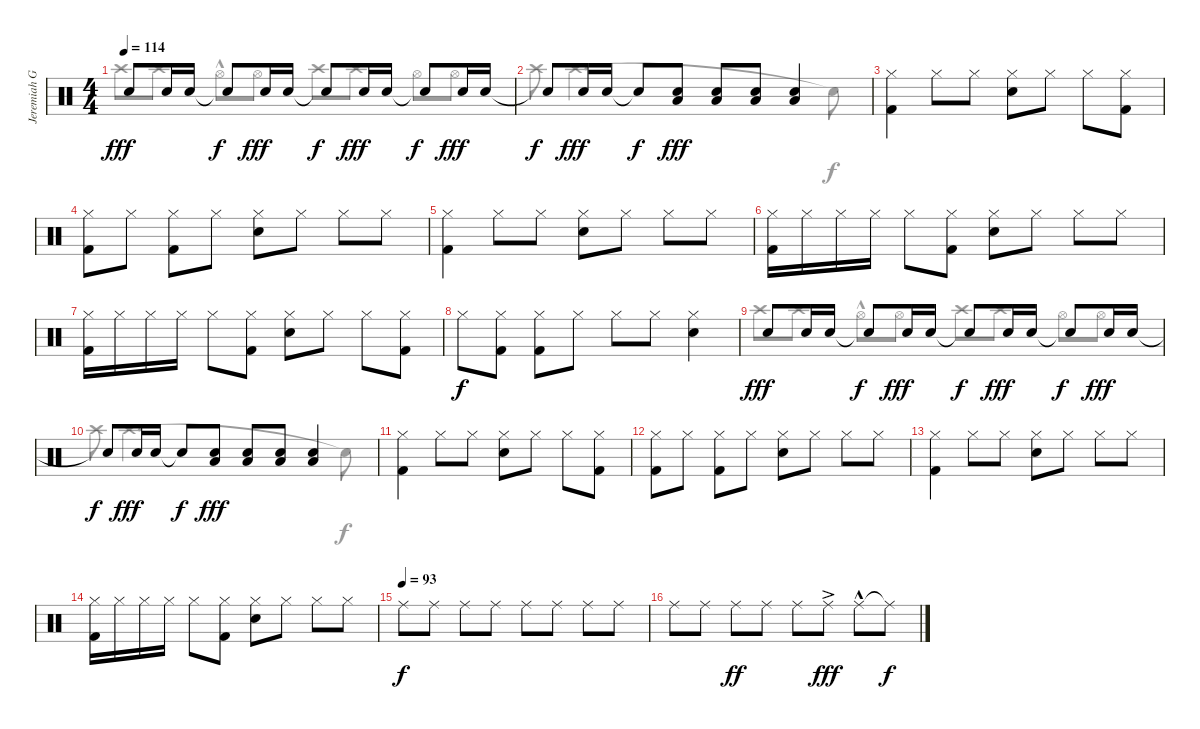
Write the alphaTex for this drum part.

\track ("Jeremiah Green" "Jeremiah G") {instrument percussion}
\staff {score}
\articulation defaults
\voice
\ts (4 4)
\tempo 114
\clef neutral
\ks c "Electric Snare (hit)".8{dy fff} "Snare (hit) 2".16 "Snare (hit) 2".16 "Electric Snare (hit)"{t}.8{dy f} "Snare (hit) 2".16{dy fff} "Snare (hit) 2".16 "Electric Snare (hit)"{t}.8{dy f} "Snare (hit) 2".16{dy fff} "Snare (hit) 2".16 "Electric Snare (hit)"{t}.8{dy f} "Snare (hit) 2".16{dy fff} "Snare (hit) 2".16
|
"Snare (hit)"{t}.8{dy f} "Snare (hit) 2".16{dy fff} "Snare (hit) 2".16 "Snare (hit)"{t}.8{dy f} ("Low Floor Tom (hit)" "Snare (hit) 2").8{dy fff} ("Low Floor Tom (hit)" "Snare (hit) 2").8 ("Low Floor Tom (hit)" "Snare (hit) 2").8 ("Low Floor Tom (hit)" "Snare (hit) 2").4 |
("Hi-Hat (closed)" "Kick (hit) 2").4 "Hi-Hat (closed)".8 "Hi-Hat (closed)".8 ("Hi-Hat (closed)" "Snare (hit) 2").8 "Hi-Hat (closed)".8 "Hi-Hat (closed)".8 ("Hi-Hat (closed)" "Kick (hit) 2").8 |
("Hi-Hat (closed)" "Kick (hit) 2").8 "Hi-Hat (closed)".8 ("Hi-Hat (closed)" "Kick (hit) 2").8 "Hi-Hat (closed)".8 ("Hi-Hat (closed)" "Snare (hit) 2").8 "Hi-Hat (closed)".8 "Hi-Hat (closed)".8 "Hi-Hat (closed)".8 |
("Hi-Hat (closed)" "Kick (hit) 2").4 "Hi-Hat (closed)".8 "Hi-Hat (closed)".8 ("Hi-Hat (closed)" "Snare (hit) 2").8 "Hi-Hat (closed)".8 "Hi-Hat (closed)".8 "Hi-Hat (closed)".8 |
("Hi-Hat (closed)" "Kick (hit) 2").16 "Hi-Hat (closed)".16 "Hi-Hat (closed)".16 "Hi-Hat (closed)".16 "Hi-Hat (closed)".8 ("Hi-Hat (closed)" "Kick (hit) 2").8 ("Hi-Hat (closed)" "Snare (hit) 2").8 "Hi-Hat (closed)".8 "Hi-Hat (closed)".8 "Hi-Hat (closed)".8 |
("Hi-Hat (closed)" "Kick (hit) 2").16 "Hi-Hat (closed)".16 "Hi-Hat (closed)".16 "Hi-Hat (closed)".16 "Hi-Hat (closed)".8 ("Hi-Hat (closed)" "Kick (hit) 2").8 ("Hi-Hat (closed)" "Snare (hit) 2").8 "Hi-Hat (closed)".8 "Hi-Hat (closed)".8 ("Hi-Hat (closed)" "Kick (hit) 2").8 |
"Hi-Hat (closed)".8{dy f} ("Hi-Hat (closed)" "Kick (hit) 2").8 ("Hi-Hat (closed)" "Kick (hit) 2").8 "Hi-Hat (closed)".8 "Hi-Hat (closed)".8 "Hi-Hat (closed)".8 ("Hi-Hat (closed)" "Snare (hit) 2").4 |
"Electric Snare (hit)".8{dy fff} "Snare (hit) 2".16 "Snare (hit) 2".16 "Electric Snare (hit)"{t}.8{dy f} "Snare (hit) 2".16{dy fff} "Snare (hit) 2".16 "Electric Snare (hit)"{t}.8{dy f} "Snare (hit) 2".16{dy fff} "Snare (hit) 2".16 "Electric Snare (hit)"{t}.8{dy f} "Snare (hit) 2".16{dy fff} "Snare (hit) 2".16 |
"Snare (hit)"{t}.8{dy f} "Snare (hit) 2".16{dy fff} "Snare (hit) 2".16 "Snare (hit)"{t}.8{dy f} ("Low Floor Tom (hit)" "Snare (hit) 2").8{dy fff} ("Low Floor Tom (hit)" "Snare (hit) 2").8 ("Low Floor Tom (hit)" "Snare (hit) 2").8 ("Low Floor Tom (hit)" "Snare (hit) 2").4 |
("Hi-Hat (closed)" "Kick (hit) 2").4 "Hi-Hat (closed)".8 "Hi-Hat (closed)".8 ("Hi-Hat (closed)" "Snare (hit) 2").8 "Hi-Hat (closed)".8 "Hi-Hat (closed)".8 ("Hi-Hat (closed)" "Kick (hit) 2").8 |
("Hi-Hat (closed)" "Kick (hit) 2").8 "Hi-Hat (closed)".8 ("Hi-Hat (closed)" "Kick (hit) 2").8 "Hi-Hat (closed)".8 ("Hi-Hat (closed)" "Snare (hit) 2").8 "Hi-Hat (closed)".8 "Hi-Hat (closed)".8 "Hi-Hat (closed)".8 |
("Hi-Hat (closed)" "Kick (hit) 2").4 "Hi-Hat (closed)".8 "Hi-Hat (closed)".8 ("Hi-Hat (closed)" "Snare (hit) 2").8 "Hi-Hat (closed)".8 "Hi-Hat (closed)".8 "Hi-Hat (closed)".8 |
("Hi-Hat (closed)" "Kick (hit) 2").16 "Hi-Hat (closed)".16 "Hi-Hat (closed)".16 "Hi-Hat (closed)".16 "Hi-Hat (closed)".8 ("Hi-Hat (closed)" "Kick (hit) 2").8 ("Hi-Hat (closed)" "Snare (hit) 2").8 "Hi-Hat (closed)".8 "Hi-Hat (closed)".8 "Hi-Hat (closed)".8 |
\tempo (93)
"Ride (middle)".8{dy f} "Ride (middle)".8 "Ride (middle)".8 "Ride (middle)".8 "Ride (middle)".8 "Ride (middle)".8 "Ride (middle)".8 "Ride (middle)".8 |
"Ride (middle)".8 "Ride (middle)".8 "Ride (middle)".8{dy ff} "Ride (middle)".8 "Ride (middle)".8 "Ride (middle)"{ac}.8{dy fff} "Ride (middle)"{hac}.8 "Ride (middle)"{t}.8{dy f}
\voice
\clef neutral
\ottava regular
\simile none
\ks c "Crash high (hit)".8{dy fff} "Crash high (hit)".8 "Hi-Hat (open)"{hac}.8 "Hi-Hat (open)".8 "Crash high (hit)".8 "Crash high (hit)".8 "Hi-Hat (open)".8 "Hi-Hat (open)".8
|
"Crash high (hit)".8 "Crash high (hit)".2{d} "Snare (hit)"{t}.8{dy f} |
|
|
|
|
|
|
"Crash high (hit)".8{dy fff} "Crash high (hit)".8 "Hi-Hat (open)"{hac}.8 "Hi-Hat (open)".8 "Crash high (hit)".8 "Crash high (hit)".8 "Hi-Hat (open)".8 "Hi-Hat (open)".8 |
"Crash high (hit)".8 "Crash high (hit)".2{d} "Snare (hit)"{t}.8{dy f} |
|
|
|
|
|
